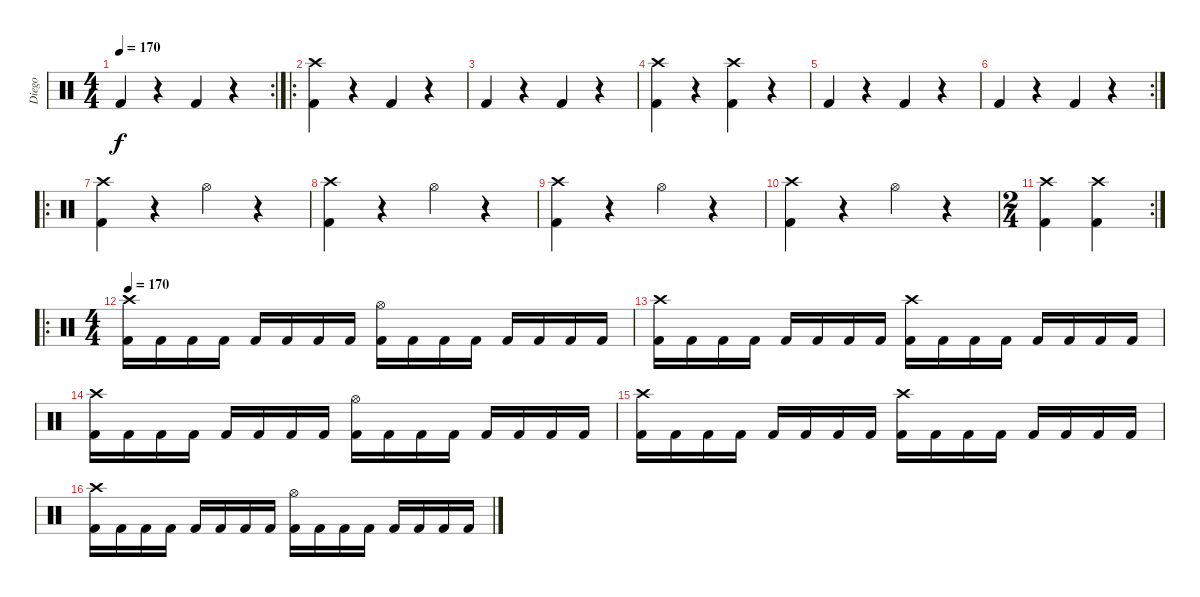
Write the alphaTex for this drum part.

\track ("Diego" "Diego") {instrument percussion}
\staff {score}
\articulation defaults
\rc 2
\ts (4 4)
\tempo 170
\clef neutral
\ks c "Kick (hit) 2".4{dy f}
r.4 "Kick (hit) 2".4 r.4 |
\ro
("Crash high (hit)" "Kick (hit) 2").4 r.4 "Kick (hit) 2".4 r.4 |
"Kick (hit) 2".4 r.4 "Kick (hit) 2".4 r.4 |
("Crash high (hit)" "Kick (hit) 2").4 r.4 ("Crash high (hit)" "Kick (hit) 2").4 r.4 |
"Kick (hit) 2".4 r.4 "Kick (hit) 2".4 r.4 |
\rc 2 "Kick (hit) 2".4
r.4 "Kick (hit) 2".4 r.4 |
\ro
("Crash high (hit)" "Kick (hit) 2").4 r.4 "Hi-Hat (open)".4 r.4 |
("Crash high (hit)" "Kick (hit) 2").4 r.4 "Hi-Hat (open)".4 r.4 |
("Crash high (hit)" "Kick (hit) 2").4 r.4 "Hi-Hat (open)".4 r.4 |
("Crash high (hit)" "Kick (hit) 2").4 r.4 "Hi-Hat (open)".4 r.4 |
\rc 2
\ts (2 4)
("Crash high (hit)" "Kick (hit) 2").4 ("Crash high (hit)" "Kick (hit) 2").4 |
\ro
\ts (4 4)
\tempo 170
("Crash high (hit)" "Kick (hit) 2").16 "Kick (hit) 2".16 "Kick (hit) 2".16 "Kick (hit) 2".16 "Kick (hit) 2".16 "Kick (hit) 2".16 "Kick (hit) 2".16 "Kick (hit) 2".16 ("Hi-Hat (open)" "Kick (hit) 2").16 "Kick (hit) 2".16 "Kick (hit) 2".16 "Kick (hit) 2".16 "Kick (hit) 2".16 "Kick (hit) 2".16 "Kick (hit) 2".16 "Kick (hit) 2".16 |
("Crash high (hit)" "Kick (hit) 2").16 "Kick (hit) 2".16 "Kick (hit) 2".16 "Kick (hit) 2".16 "Kick (hit) 2".16 "Kick (hit) 2".16 "Kick (hit) 2".16 "Kick (hit) 2".16 ("Crash high (hit)" "Kick (hit) 2").16 "Kick (hit) 2".16 "Kick (hit) 2".16 "Kick (hit) 2".16 "Kick (hit) 2".16 "Kick (hit) 2".16 "Kick (hit) 2".16 "Kick (hit) 2".16 |
("Crash high (hit)" "Kick (hit) 2").16 "Kick (hit) 2".16 "Kick (hit) 2".16 "Kick (hit) 2".16 "Kick (hit) 2".16 "Kick (hit) 2".16 "Kick (hit) 2".16 "Kick (hit) 2".16 ("Hi-Hat (open)" "Kick (hit) 2").16 "Kick (hit) 2".16 "Kick (hit) 2".16 "Kick (hit) 2".16 "Kick (hit) 2".16 "Kick (hit) 2".16 "Kick (hit) 2".16 "Kick (hit) 2".16 |
("Crash high (hit)" "Kick (hit) 2").16 "Kick (hit) 2".16 "Kick (hit) 2".16 "Kick (hit) 2".16 "Kick (hit) 2".16 "Kick (hit) 2".16 "Kick (hit) 2".16 "Kick (hit) 2".16 ("Crash high (hit)" "Kick (hit) 2").16 "Kick (hit) 2".16 "Kick (hit) 2".16 "Kick (hit) 2".16 "Kick (hit) 2".16 "Kick (hit) 2".16 "Kick (hit) 2".16 "Kick (hit) 2".16 |
("Crash high (hit)" "Kick (hit) 2").16 "Kick (hit) 2".16 "Kick (hit) 2".16 "Kick (hit) 2".16 "Kick (hit) 2".16 "Kick (hit) 2".16 "Kick (hit) 2".16 "Kick (hit) 2".16 ("Hi-Hat (open)" "Kick (hit) 2").16 "Kick (hit) 2".16 "Kick (hit) 2".16 "Kick (hit) 2".16 "Kick (hit) 2".16 "Kick (hit) 2".16 "Kick (hit) 2".16 "Kick (hit) 2".16
